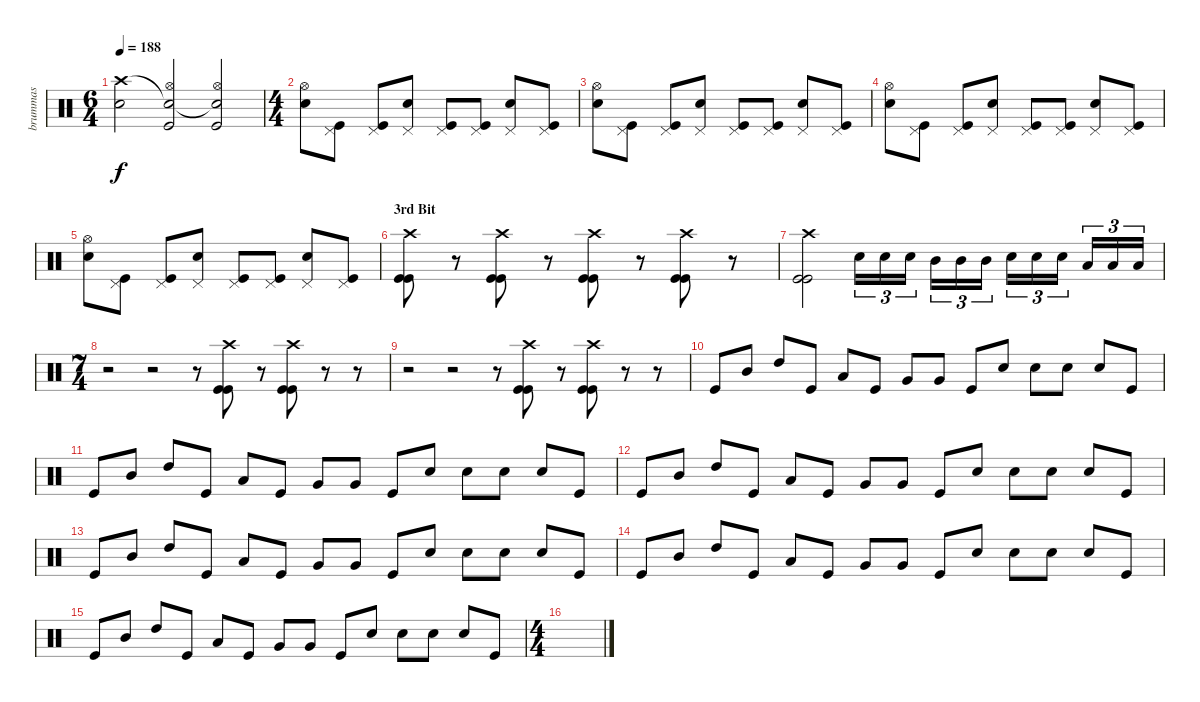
\track ("brummas" "brummas") {instrument percussion}
\staff {score}
\articulation defaults
\ts (6 4)
\tempo 188
\clef neutral
\ks c
("Crash high (hit)" "Snare (hit) 2").2{dy f} ("Snare (hit)"{t} "Hi-Hat (open)" "Kick (hit)").2 ("Snare (hit)"{t} "Hi-Hat (open)" "Kick (hit)").2 |
\ts (4 4)
("Hi-Hat (open)" "Snare (hit) 2").8 ("Pedal Hi-Hat (hit)" "Kick (hit)").8 ("Pedal Hi-Hat (hit)" "Kick (hit)").8 ("Pedal Hi-Hat (hit)" "Snare (hit) 2").8 ("Pedal Hi-Hat (hit)" "Kick (hit)").8 ("Pedal Hi-Hat (hit)" "Kick (hit)").8 ("Pedal Hi-Hat (hit)" "Snare (hit) 2").8 ("Pedal Hi-Hat (hit)" "Kick (hit)").8 |
("Hi-Hat (open)" "Snare (hit) 2").8 ("Pedal Hi-Hat (hit)" "Kick (hit)").8 ("Pedal Hi-Hat (hit)" "Kick (hit)").8 ("Pedal Hi-Hat (hit)" "Snare (hit) 2").8 ("Pedal Hi-Hat (hit)" "Kick (hit)").8 ("Pedal Hi-Hat (hit)" "Kick (hit)").8 ("Pedal Hi-Hat (hit)" "Snare (hit) 2").8 ("Pedal Hi-Hat (hit)" "Kick (hit)").8 |
("Hi-Hat (open)" "Snare (hit) 2").8 ("Pedal Hi-Hat (hit)" "Kick (hit)").8 ("Pedal Hi-Hat (hit)" "Kick (hit)").8 ("Pedal Hi-Hat (hit)" "Snare (hit) 2").8 ("Pedal Hi-Hat (hit)" "Kick (hit)").8 ("Pedal Hi-Hat (hit)" "Kick (hit)").8 ("Pedal Hi-Hat (hit)" "Snare (hit) 2").8 ("Pedal Hi-Hat (hit)" "Kick (hit)").8 |
("Hi-Hat (open)" "Snare (hit) 2").8 ("Pedal Hi-Hat (hit)" "Kick (hit)").8 ("Pedal Hi-Hat (hit)" "Kick (hit)").8 ("Pedal Hi-Hat (hit)" "Snare (hit) 2").8 ("Pedal Hi-Hat (hit)" "Kick (hit)").8 ("Pedal Hi-Hat (hit)" "Kick (hit)").8 ("Pedal Hi-Hat (hit)" "Snare (hit) 2").8 ("Pedal Hi-Hat (hit)" "Kick (hit)").8 |
\section ("" "3rd Bit")
("Crash high (hit)" "Kick (hit)" "Kick (hit)").8 r.8 ("Crash high (hit)" "Kick (hit)" "Kick (hit)").8 r.8 ("Crash high (hit)" "Kick (hit)" "Kick (hit)").8 r.8 ("Crash high (hit)" "Kick (hit)" "Kick (hit)").8 r.8 |
("Crash high (hit)" "Kick (hit)" "Kick (hit)").2 "Snare (hit) 2".16{tu (3 2)} "Snare (hit) 2".16{tu (3 2)} "Snare (hit) 2".16{tu (3 2)} "Mid Tom (hit)".16{tu (3 2)} "Mid Tom (hit)".16{tu (3 2)} "Mid Tom (hit)".16{tu (3 2)} "Snare (hit) 2".16{tu (3 2)} "Snare (hit) 2".16{tu (3 2)} "Snare (hit) 2".16{tu (3 2)} "Low Tom (hit)".16{tu (3 2)} "Low Tom (hit)".16{tu (3 2)} "Low Tom (hit)".16{tu (3 2)} |
\ts (7 4)
r.2 r.2 r.8 ("Crash high (hit)" "Kick (hit)" "Kick (hit)").8 r.8 ("Crash high (hit)" "Kick (hit)" "Kick (hit)").8 r.8 r.8 |
r.2 r.2 r.8 ("Crash high (hit)" "Kick (hit)" "Kick (hit)").8 r.8 ("Crash high (hit)" "Kick (hit)" "Kick (hit)").8 r.8 r.8 |
"Kick (hit)".8 "Mid Tom (hit)".8 "High Tom (hit)".8 "Kick (hit)".8 "Low Tom (hit)".8 "Kick (hit)".8 "Very Low Tom (hit)".8 "Very Low Tom (hit)".8 "Kick (hit)".8 "Snare (hit) 2".8 "Snare (hit) 2".8 "Snare (hit) 2".8 "Snare (hit) 2".8 "Kick (hit)".8 |
"Kick (hit)".8 "Mid Tom (hit)".8 "High Tom (hit)".8 "Kick (hit)".8 "Low Tom (hit)".8 "Kick (hit)".8 "Very Low Tom (hit)".8 "Very Low Tom (hit)".8 "Kick (hit)".8 "Snare (hit) 2".8 "Snare (hit) 2".8 "Snare (hit) 2".8 "Snare (hit) 2".8 "Kick (hit)".8 |
"Kick (hit)".8 "Mid Tom (hit)".8 "High Tom (hit)".8 "Kick (hit)".8 "Low Tom (hit)".8 "Kick (hit)".8 "Very Low Tom (hit)".8 "Very Low Tom (hit)".8 "Kick (hit)".8 "Snare (hit) 2".8 "Snare (hit) 2".8 "Snare (hit) 2".8 "Snare (hit) 2".8 "Kick (hit)".8 |
"Kick (hit)".8 "Mid Tom (hit)".8 "High Tom (hit)".8 "Kick (hit)".8 "Low Tom (hit)".8 "Kick (hit)".8 "Very Low Tom (hit)".8 "Very Low Tom (hit)".8 "Kick (hit)".8 "Snare (hit) 2".8 "Snare (hit) 2".8 "Snare (hit) 2".8 "Snare (hit) 2".8 "Kick (hit)".8 |
"Kick (hit)".8 "Mid Tom (hit)".8 "High Tom (hit)".8 "Kick (hit)".8 "Low Tom (hit)".8 "Kick (hit)".8 "Very Low Tom (hit)".8 "Very Low Tom (hit)".8 "Kick (hit)".8 "Snare (hit) 2".8 "Snare (hit) 2".8 "Snare (hit) 2".8 "Snare (hit) 2".8 "Kick (hit)".8 |
"Kick (hit)".8 "Mid Tom (hit)".8 "High Tom (hit)".8 "Kick (hit)".8 "Low Tom (hit)".8 "Kick (hit)".8 "Very Low Tom (hit)".8 "Very Low Tom (hit)".8 "Kick (hit)".8 "Snare (hit) 2".8 "Snare (hit) 2".8 "Snare (hit) 2".8 "Snare (hit) 2".8 "Kick (hit)".8 |
\ts (4 4)
